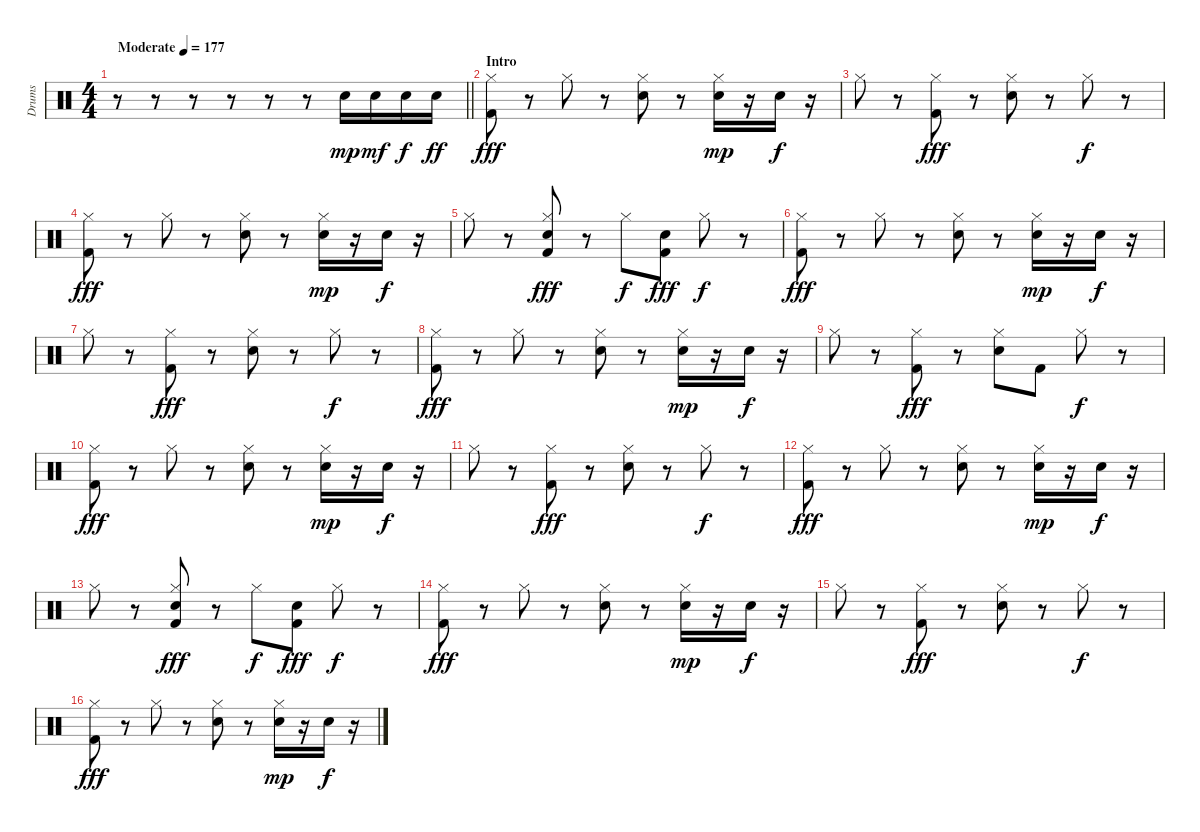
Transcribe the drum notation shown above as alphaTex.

\track ("Drums" "Drums") {instrument percussion}
\staff {score}
\articulation defaults
\ts (4 4)
\tempo (177 "Moderate")
\clef neutral
\barLineRight lightlight
\ks c
r.8{dy mp} r.8 r.8 r.8 r.8 r.8 "Snare (hit) 2".16 "Snare (hit) 2".16{dy mf} "Snare (hit) 2".16{dy f} "Snare (hit) 2".16{dy ff} |
\section ("" "Intro")
("Hi-Hat (closed)" "Kick (hit) 2").8{dy fff} r.8 "Hi-Hat (closed)".8 r.8 ("Hi-Hat (closed)" "Snare (hit) 2").8 r.8 ("Hi-Hat (closed)" "Snare (hit) 2").16{dy mp} r.16 "Snare (hit) 2".16{dy f} r.16 |
"Hi-Hat (closed)".8 r.8 ("Hi-Hat (closed)" "Kick (hit) 2").8{dy fff} r.8 ("Hi-Hat (closed)" "Snare (hit) 2").8 r.8 "Hi-Hat (closed)".8{dy f} r.8 |
("Hi-Hat (closed)" "Kick (hit) 2").8{dy fff} r.8 "Hi-Hat (closed)".8 r.8 ("Hi-Hat (closed)" "Snare (hit) 2").8 r.8 ("Hi-Hat (closed)" "Snare (hit) 2").16{dy mp} r.16 "Snare (hit) 2".16{dy f} r.16 |
"Hi-Hat (closed)".8 r.8 ("Hi-Hat (closed)" "Snare (hit) 2" "Kick (hit) 2").8{dy fff} r.8 "Hi-Hat (closed)".8{dy f} ("Snare (hit) 2" "Kick (hit) 2").8{dy fff} "Hi-Hat (closed)".8{dy f} r.8 |
("Hi-Hat (closed)" "Kick (hit) 2").8{dy fff} r.8 "Hi-Hat (closed)".8 r.8 ("Hi-Hat (closed)" "Snare (hit) 2").8 r.8 ("Hi-Hat (closed)" "Snare (hit) 2").16{dy mp} r.16 "Snare (hit) 2".16{dy f} r.16 |
"Hi-Hat (closed)".8 r.8 ("Hi-Hat (closed)" "Kick (hit) 2").8{dy fff} r.8 ("Hi-Hat (closed)" "Snare (hit) 2").8 r.8 "Hi-Hat (closed)".8{dy f} r.8 |
("Hi-Hat (closed)" "Kick (hit) 2").8{dy fff} r.8 "Hi-Hat (closed)".8 r.8 ("Hi-Hat (closed)" "Snare (hit) 2").8 r.8 ("Hi-Hat (closed)" "Snare (hit) 2").16{dy mp} r.16 "Snare (hit) 2".16{dy f} r.16 |
"Hi-Hat (closed)".8 r.8 ("Hi-Hat (closed)" "Kick (hit) 2").8{dy fff} r.8 ("Hi-Hat (closed)" "Snare (hit) 2").8 "Kick (hit) 2".8 "Hi-Hat (closed)".8{dy f} r.8 |
("Hi-Hat (closed)" "Kick (hit) 2").8{dy fff} r.8 "Hi-Hat (closed)".8 r.8 ("Hi-Hat (closed)" "Snare (hit) 2").8 r.8 ("Hi-Hat (closed)" "Snare (hit) 2").16{dy mp} r.16 "Snare (hit) 2".16{dy f} r.16 |
"Hi-Hat (closed)".8 r.8 ("Hi-Hat (closed)" "Kick (hit) 2").8{dy fff} r.8 ("Hi-Hat (closed)" "Snare (hit) 2").8 r.8 "Hi-Hat (closed)".8{dy f} r.8 |
("Hi-Hat (closed)" "Kick (hit) 2").8{dy fff} r.8 "Hi-Hat (closed)".8 r.8 ("Hi-Hat (closed)" "Snare (hit) 2").8 r.8 ("Hi-Hat (closed)" "Snare (hit) 2").16{dy mp} r.16 "Snare (hit) 2".16{dy f} r.16 |
"Hi-Hat (closed)".8 r.8 ("Hi-Hat (closed)" "Snare (hit) 2" "Kick (hit) 2").8{dy fff} r.8 "Hi-Hat (closed)".8{dy f} ("Snare (hit) 2" "Kick (hit) 2").8{dy fff} "Hi-Hat (closed)".8{dy f} r.8 |
("Hi-Hat (closed)" "Kick (hit) 2").8{dy fff} r.8 "Hi-Hat (closed)".8 r.8 ("Hi-Hat (closed)" "Snare (hit) 2").8 r.8 ("Hi-Hat (closed)" "Snare (hit) 2").16{dy mp} r.16 "Snare (hit) 2".16{dy f} r.16 |
"Hi-Hat (closed)".8 r.8 ("Hi-Hat (closed)" "Kick (hit) 2").8{dy fff} r.8 ("Hi-Hat (closed)" "Snare (hit) 2").8 r.8 "Hi-Hat (closed)".8{dy f} r.8 |
("Hi-Hat (closed)" "Kick (hit) 2").8{dy fff} r.8 "Hi-Hat (closed)".8 r.8 ("Hi-Hat (closed)" "Snare (hit) 2").8 r.8 ("Hi-Hat (closed)" "Snare (hit) 2").16{dy mp} r.16 "Snare (hit) 2".16{dy f} r.16
